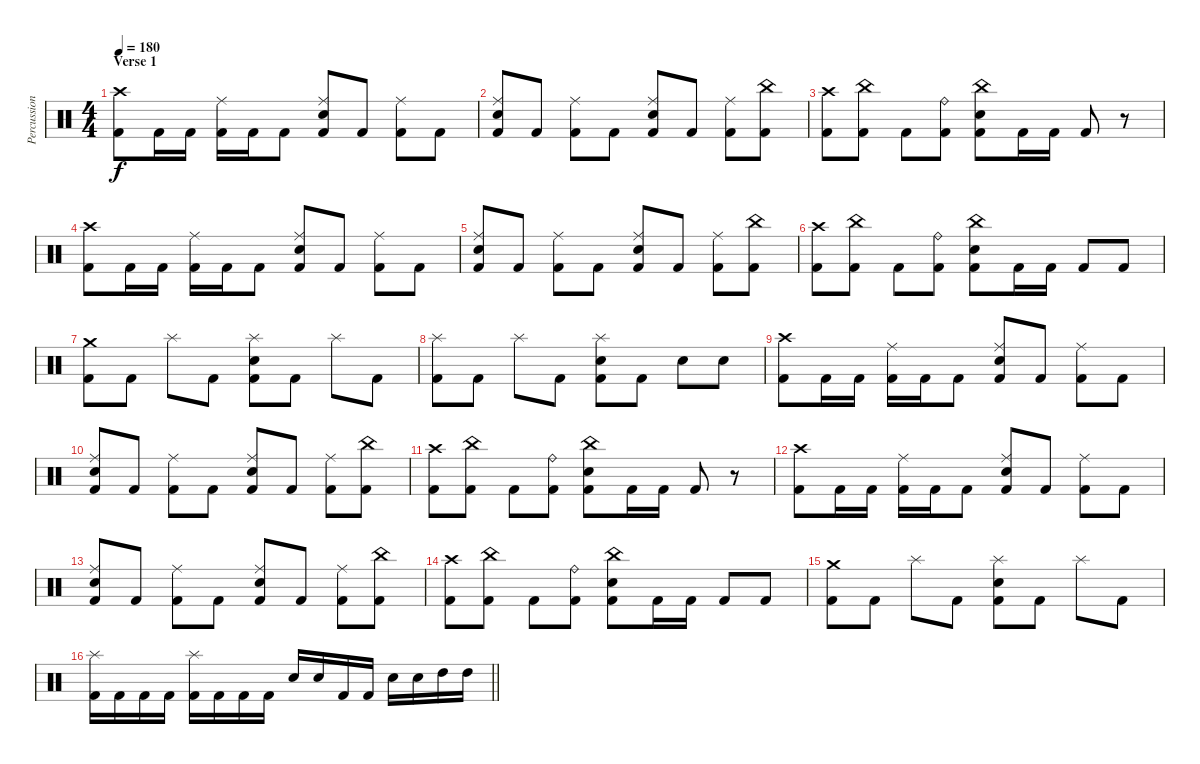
\track ("Percussion" "Percussion") {instrument percussion}
\staff {score}
\articulation defaults
\ts (4 4)
\section ("" "Verse 1")
\tempo 180
\clef neutral
\ks c
("Crash high (hit)" "Kick (hit) 2").8{dy f} "Kick (hit) 2".16 "Kick (hit) 2".16 ("Ride (middle)" "Kick (hit) 2").16 "Kick (hit) 2".16 "Kick (hit) 2".8 ("Ride (middle)" "Electric Snare (hit)" "Kick (hit) 2").8 "Kick (hit) 2".8 ("Ride (middle)" "Kick (hit) 2").8 "Kick (hit) 2".8 |
("Ride (middle)" "Electric Snare (hit)" "Kick (hit) 2").8 "Kick (hit) 2".8 ("Ride (middle)" "Kick (hit) 2").8 "Kick (hit) 2".8 ("Ride (middle)" "Electric Snare (hit)" "Kick (hit) 2").8 "Kick (hit) 2".8 ("Ride (middle)" "Kick (hit) 2").8 ("China (hit)" "Kick (hit) 2").8 |
("Crash high (hit)" "Kick (hit) 2").8 ("China (hit)" "Kick (hit) 2").8 "Kick (hit) 2".8 ("Ride (bell)" "Kick (hit) 2").8 ("China (hit)" "Electric Snare (hit)" "Kick (hit) 2").8 "Kick (hit) 2".16 "Kick (hit) 2".16 "Kick (hit) 2".8 r.8 |
("Crash high (hit)" "Kick (hit) 2").8 "Kick (hit) 2".16 "Kick (hit) 2".16 ("Ride (middle)" "Kick (hit) 2").16 "Kick (hit) 2".16 "Kick (hit) 2".8 ("Ride (middle)" "Electric Snare (hit)" "Kick (hit) 2").8 "Kick (hit) 2".8 ("Ride (middle)" "Kick (hit) 2").8 "Kick (hit) 2".8 |
("Ride (middle)" "Electric Snare (hit)" "Kick (hit) 2").8 "Kick (hit) 2".8 ("Ride (middle)" "Kick (hit) 2").8 "Kick (hit) 2".8 ("Ride (middle)" "Electric Snare (hit)" "Kick (hit) 2").8 "Kick (hit) 2".8 ("Ride (middle)" "Kick (hit) 2").8 ("China (hit)" "Kick (hit) 2").8 |
("Crash high (hit)" "Kick (hit) 2").8 ("China (hit)" "Kick (hit) 2").8 "Kick (hit) 2".8 ("Ride (bell)" "Kick (hit) 2").8 ("China (hit)" "Electric Snare (hit)" "Kick (hit) 2").8 "Kick (hit) 2".16 "Kick (hit) 2".16 "Kick (hit) 2".8 "Kick (hit) 2".8 |
("Crash medium (hit)" "Kick (hit) 2").8 "Kick (hit) 2".8 "Splash (hit)".8 "Kick (hit) 2".8 ("Splash (hit)" "Electric Snare (hit)" "Kick (hit) 2").8 "Kick (hit) 2".8 "Splash (hit)".8 "Kick (hit) 2".8 |
("Splash (hit)" "Kick (hit) 2").8 "Kick (hit) 2".8 "Splash (hit)".8 "Kick (hit) 2".8 ("Splash (hit)" "Electric Snare (hit)" "Kick (hit) 2").8 "Kick (hit) 2".8 "Electric Snare (hit)".8 "Electric Snare (hit)".8 |
("Crash high (hit)" "Kick (hit) 2").8 "Kick (hit) 2".16 "Kick (hit) 2".16 ("Ride (middle)" "Kick (hit) 2").16 "Kick (hit) 2".16 "Kick (hit) 2".8 ("Ride (middle)" "Electric Snare (hit)" "Kick (hit) 2").8 "Kick (hit) 2".8 ("Ride (middle)" "Kick (hit) 2").8 "Kick (hit) 2".8 |
("Ride (middle)" "Electric Snare (hit)" "Kick (hit) 2").8 "Kick (hit) 2".8 ("Ride (middle)" "Kick (hit) 2").8 "Kick (hit) 2".8 ("Ride (middle)" "Electric Snare (hit)" "Kick (hit) 2").8 "Kick (hit) 2".8 ("Ride (middle)" "Kick (hit) 2").8 ("China (hit)" "Kick (hit) 2").8 |
("Crash high (hit)" "Kick (hit) 2").8 ("China (hit)" "Kick (hit) 2").8 "Kick (hit) 2".8 ("Ride (bell)" "Kick (hit) 2").8 ("China (hit)" "Electric Snare (hit)" "Kick (hit) 2").8 "Kick (hit) 2".16 "Kick (hit) 2".16 "Kick (hit) 2".8 r.8 |
("Crash high (hit)" "Kick (hit) 2").8 "Kick (hit) 2".16 "Kick (hit) 2".16 ("Ride (middle)" "Kick (hit) 2").16 "Kick (hit) 2".16 "Kick (hit) 2".8 ("Ride (middle)" "Electric Snare (hit)" "Kick (hit) 2").8 "Kick (hit) 2".8 ("Ride (middle)" "Kick (hit) 2").8 "Kick (hit) 2".8 |
("Ride (middle)" "Electric Snare (hit)" "Kick (hit) 2").8 "Kick (hit) 2".8 ("Ride (middle)" "Kick (hit) 2").8 "Kick (hit) 2".8 ("Ride (middle)" "Electric Snare (hit)" "Kick (hit) 2").8 "Kick (hit) 2".8 ("Ride (middle)" "Kick (hit) 2").8 ("China (hit)" "Kick (hit) 2").8 |
("Crash high (hit)" "Kick (hit) 2").8 ("China (hit)" "Kick (hit) 2").8 "Kick (hit) 2".8 ("Ride (bell)" "Kick (hit) 2").8 ("China (hit)" "Electric Snare (hit)" "Kick (hit) 2").8 "Kick (hit) 2".16 "Kick (hit) 2".16 "Kick (hit) 2".8 "Kick (hit) 2".8 |
("Crash medium (hit)" "Kick (hit) 2").8 "Kick (hit) 2".8 "Splash (hit)".8 "Kick (hit) 2".8 ("Splash (hit)" "Electric Snare (hit)" "Kick (hit) 2").8 "Kick (hit) 2".8 "Splash (hit)".8 "Kick (hit) 2".8 |
\barLineRight lightlight
("Splash (hit)" "Kick (hit) 2").16 "Kick (hit) 2".16 "Kick (hit) 2".16 "Kick (hit) 2".16 ("Splash (hit)" "Kick (hit) 2").16 "Kick (hit) 2".16 "Kick (hit) 2".16 "Kick (hit) 2".16 "Electric Snare (hit)".16 "Electric Snare (hit)".16 "Kick (hit) 2".16 "Kick (hit) 2".16 "Electric Snare (hit)".16 "Electric Snare (hit)".16 "High Tom (hit)".16 "High Tom (hit)".16
